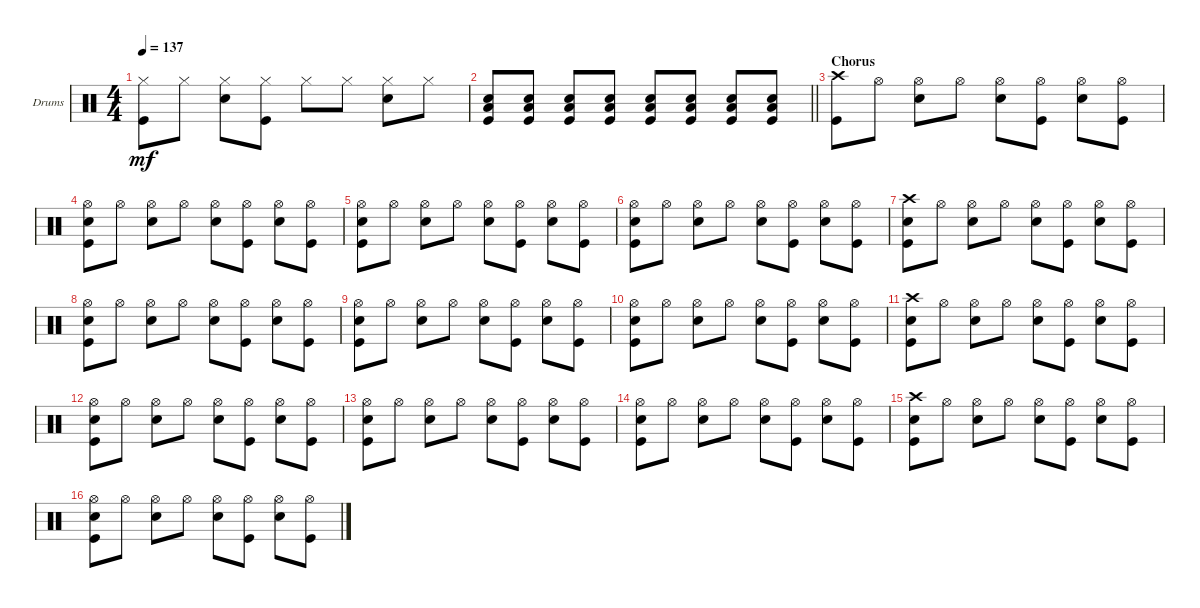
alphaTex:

\bracketExtendMode groupsimilarinstruments
\firstSystemTrackNameOrientation horizontal
\otherSystemsTrackNameOrientation horizontal
\track ("Fabrizio" "Drums") {instrument percussion}
\staff {score}
\articulation defaults
\ts (4 4)
\tempo 137
\clef neutral
\scale
0.333333
\ks c
("Kick (hit)" "Hi-Hat (closed)").8{dy mf} "Hi-Hat (closed)".8 ("Hi-Hat (closed)" "Snare (hit) 2").8 ("Hi-Hat (closed)" "Kick (hit)").8 "Hi-Hat (closed)".8 "Hi-Hat (closed)".8 ("Hi-Hat (closed)" "Snare (hit) 2").8 "Hi-Hat (closed)".8 |
\scale
0.333333
\barLineRight lightlight
("Kick (hit)" "Snare (hit) 2" "Low Tom (hit)").8 ("Kick (hit)" "Snare (hit) 2" "Low Tom (hit)").8 ("Kick (hit)" "Snare (hit) 2" "Low Tom (hit)").8 ("Kick (hit)" "Snare (hit) 2" "Low Tom (hit)").8 ("Kick (hit)" "Snare (hit) 2" "Low Tom (hit)").8 ("Kick (hit)" "Snare (hit) 2" "Low Tom (hit)").8 ("Kick (hit)" "Snare (hit) 2" "Low Tom (hit)").8 ("Kick (hit)" "Snare (hit) 2" "Low Tom (hit)").8 |
\section ("" "Chorus")
\scale
0.333333 ("Crash high (hit)" "Kick (hit)").8 "Hi-Hat (open)".8 ("Hi-Hat (open)" "Snare (hit) 2").8 "Hi-Hat (open)".8 ("Hi-Hat (open)" "Snare (hit) 2").8 ("Hi-Hat (open)" "Kick (hit)").8 ("Hi-Hat (open)" "Snare (hit) 2").8 ("Hi-Hat (open)" "Kick (hit)").8 |
\scale
0.333333 ("Hi-Hat (open)" "Snare (hit) 2" "Kick (hit)").8 "Hi-Hat (open)".8 ("Hi-Hat (open)" "Snare (hit) 2").8 "Hi-Hat (open)".8 ("Hi-Hat (open)" "Snare (hit) 2").8 ("Hi-Hat (open)" "Kick (hit)").8 ("Hi-Hat (open)" "Snare (hit) 2").8 ("Hi-Hat (open)" "Kick (hit)").8 |
\scale
0.333333 ("Hi-Hat (open)" "Snare (hit) 2" "Kick (hit)").8 "Hi-Hat (open)".8 ("Hi-Hat (open)" "Snare (hit) 2").8 "Hi-Hat (open)".8 ("Hi-Hat (open)" "Snare (hit) 2").8 ("Hi-Hat (open)" "Kick (hit)").8 ("Hi-Hat (open)" "Snare (hit) 2").8 ("Hi-Hat (open)" "Kick (hit)").8 |
\scale
0.333333 ("Hi-Hat (open)" "Snare (hit) 2" "Kick (hit)").8 "Hi-Hat (open)".8 ("Hi-Hat (open)" "Snare (hit) 2").8 "Hi-Hat (open)".8 ("Hi-Hat (open)" "Snare (hit) 2").8 ("Hi-Hat (open)" "Kick (hit)").8 ("Hi-Hat (open)" "Snare (hit) 2").8 ("Hi-Hat (open)" "Kick (hit)").8 |
\scale
0.333333 ("Crash high (hit)" "Kick (hit)" "Snare (hit) 2").8 "Hi-Hat (open)".8 ("Hi-Hat (open)" "Snare (hit) 2").8 "Hi-Hat (open)".8 ("Hi-Hat (open)" "Snare (hit) 2").8 ("Hi-Hat (open)" "Kick (hit)").8 ("Hi-Hat (open)" "Snare (hit) 2").8 ("Hi-Hat (open)" "Kick (hit)").8 |
\scale
0.333333 ("Hi-Hat (open)" "Snare (hit) 2" "Kick (hit)").8 "Hi-Hat (open)".8 ("Hi-Hat (open)" "Snare (hit) 2").8 "Hi-Hat (open)".8 ("Hi-Hat (open)" "Snare (hit) 2").8 ("Hi-Hat (open)" "Kick (hit)").8 ("Hi-Hat (open)" "Snare (hit) 2").8 ("Hi-Hat (open)" "Kick (hit)").8 |
\scale
0.333333 ("Hi-Hat (open)" "Snare (hit) 2" "Kick (hit)").8 "Hi-Hat (open)".8 ("Hi-Hat (open)" "Snare (hit) 2").8 "Hi-Hat (open)".8 ("Hi-Hat (open)" "Snare (hit) 2").8 ("Hi-Hat (open)" "Kick (hit)").8 ("Hi-Hat (open)" "Snare (hit) 2").8 ("Hi-Hat (open)" "Kick (hit)").8 |
\scale
0.333333 ("Hi-Hat (open)" "Snare (hit) 2" "Kick (hit)").8 "Hi-Hat (open)".8 ("Hi-Hat (open)" "Snare (hit) 2").8 "Hi-Hat (open)".8 ("Hi-Hat (open)" "Snare (hit) 2").8 ("Hi-Hat (open)" "Kick (hit)").8 ("Hi-Hat (open)" "Snare (hit) 2").8 ("Hi-Hat (open)" "Kick (hit)").8 |
\scale
0.333333 ("Crash high (hit)" "Kick (hit)" "Snare (hit) 2").8 "Hi-Hat (open)".8 ("Hi-Hat (open)" "Snare (hit) 2").8 "Hi-Hat (open)".8 ("Hi-Hat (open)" "Snare (hit) 2").8 ("Hi-Hat (open)" "Kick (hit)").8 ("Hi-Hat (open)" "Snare (hit) 2").8 ("Hi-Hat (open)" "Kick (hit)").8 |
\scale
0.333333 ("Hi-Hat (open)" "Snare (hit) 2" "Kick (hit)").8 "Hi-Hat (open)".8 ("Hi-Hat (open)" "Snare (hit) 2").8 "Hi-Hat (open)".8 ("Hi-Hat (open)" "Snare (hit) 2").8 ("Hi-Hat (open)" "Kick (hit)").8 ("Hi-Hat (open)" "Snare (hit) 2").8 ("Hi-Hat (open)" "Kick (hit)").8 |
\scale
0.333333 ("Hi-Hat (open)" "Snare (hit) 2" "Kick (hit)").8 "Hi-Hat (open)".8 ("Hi-Hat (open)" "Snare (hit) 2").8 "Hi-Hat (open)".8 ("Hi-Hat (open)" "Snare (hit) 2").8 ("Hi-Hat (open)" "Kick (hit)").8 ("Hi-Hat (open)" "Snare (hit) 2").8 ("Hi-Hat (open)" "Kick (hit)").8 |
\scale
0.333333 ("Hi-Hat (open)" "Snare (hit) 2" "Kick (hit)").8 "Hi-Hat (open)".8 ("Hi-Hat (open)" "Snare (hit) 2").8 "Hi-Hat (open)".8 ("Hi-Hat (open)" "Snare (hit) 2").8 ("Hi-Hat (open)" "Kick (hit)").8 ("Hi-Hat (open)" "Snare (hit) 2").8 ("Hi-Hat (open)" "Kick (hit)").8 |
\scale
0.333333 ("Crash high (hit)" "Kick (hit)" "Snare (hit) 2").8 "Hi-Hat (open)".8 ("Hi-Hat (open)" "Snare (hit) 2").8 "Hi-Hat (open)".8 ("Hi-Hat (open)" "Snare (hit) 2").8 ("Hi-Hat (open)" "Kick (hit)").8 ("Hi-Hat (open)" "Snare (hit) 2").8 ("Hi-Hat (open)" "Kick (hit)").8 |
\scale
0.333333 ("Hi-Hat (open)" "Snare (hit) 2" "Kick (hit)").8 "Hi-Hat (open)".8 ("Hi-Hat (open)" "Snare (hit) 2").8 "Hi-Hat (open)".8 ("Hi-Hat (open)" "Snare (hit) 2").8 ("Hi-Hat (open)" "Kick (hit)").8 ("Hi-Hat (open)" "Snare (hit) 2").8 ("Hi-Hat (open)" "Kick (hit)").8
